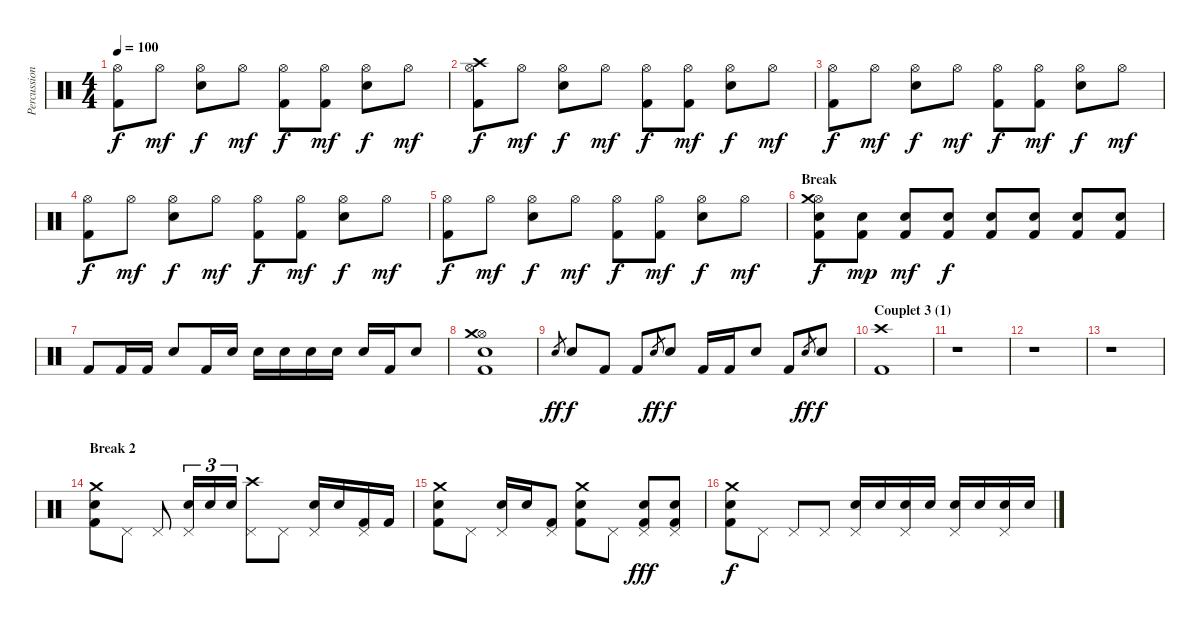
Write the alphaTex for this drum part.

\track ("Percussions" "Percussion") {instrument percussion}
\staff {score}
\articulation defaults
\ts (4 4)
\tempo 100
\clef neutral
\ks c
("Hi-Hat (open)" "Kick (hit) 2").8{dy f} "Hi-Hat (open)".8{dy mf} ("Hi-Hat (open)" "Electric Snare (hit)").8{dy f} "Hi-Hat (open)".8{dy mf} ("Hi-Hat (open)" "Kick (hit) 2").8{dy f} ("Hi-Hat (open)" "Kick (hit) 2").8{dy mf} ("Hi-Hat (open)" "Electric Snare (hit)").8{dy f} "Hi-Hat (open)".8{dy mf} |
("Hi-Hat (open)" "Crash high (hit)" "Kick (hit) 2").8{dy f} "Hi-Hat (open)".8{dy mf} ("Hi-Hat (open)" "Electric Snare (hit)").8{dy f} "Hi-Hat (open)".8{dy mf} ("Hi-Hat (open)" "Kick (hit) 2").8{dy f} ("Hi-Hat (open)" "Kick (hit) 2").8{dy mf} ("Hi-Hat (open)" "Electric Snare (hit)").8{dy f} "Hi-Hat (open)".8{dy mf} |
("Hi-Hat (open)" "Kick (hit) 2").8{dy f} "Hi-Hat (open)".8{dy mf} ("Hi-Hat (open)" "Electric Snare (hit)").8{dy f} "Hi-Hat (open)".8{dy mf} ("Hi-Hat (open)" "Kick (hit) 2").8{dy f} ("Hi-Hat (open)" "Kick (hit) 2").8{dy mf} ("Hi-Hat (open)" "Electric Snare (hit)").8{dy f} "Hi-Hat (open)".8{dy mf} |
("Hi-Hat (open)" "Kick (hit) 2").8{dy f} "Hi-Hat (open)".8{dy mf} ("Hi-Hat (open)" "Electric Snare (hit)").8{dy f} "Hi-Hat (open)".8{dy mf} ("Hi-Hat (open)" "Kick (hit) 2").8{dy f} ("Hi-Hat (open)" "Kick (hit) 2").8{dy mf} ("Hi-Hat (open)" "Electric Snare (hit)").8{dy f} "Hi-Hat (open)".8{dy mf} |
("Hi-Hat (open)" "Kick (hit) 2").8{dy f} "Hi-Hat (open)".8{dy mf} ("Hi-Hat (open)" "Electric Snare (hit)").8{dy f} "Hi-Hat (open)".8{dy mf} ("Hi-Hat (open)" "Kick (hit) 2").8{dy f} ("Hi-Hat (open)" "Kick (hit) 2").8{dy mf} ("Hi-Hat (open)" "Electric Snare (hit)").8{dy f} "Hi-Hat (open)".8{dy mf} |
\section ("" "Break")
("Hi-Hat (open)" "Crash medium (hit)" "Electric Snare (hit)" "Kick (hit) 2").8{dy f} ("Electric Snare (hit)" "Kick (hit) 2").8{dy mp} ("Electric Snare (hit)" "Kick (hit) 2").8{dy mf} ("Electric Snare (hit)" "Kick (hit) 2").8{dy f} ("Electric Snare (hit)" "Kick (hit) 2").8 ("Electric Snare (hit)" "Kick (hit) 2").8 ("Electric Snare (hit)" "Kick (hit) 2").8 ("Electric Snare (hit)" "Kick (hit) 2").8 |
"Kick (hit) 2".8 "Kick (hit) 2".16 "Kick (hit) 2".16 "Electric Snare (hit)".8 "Kick (hit) 2".16 "Electric Snare (hit)".16 "Electric Snare (hit)".16 "Electric Snare (hit)".16 "Electric Snare (hit)".16 "Electric Snare (hit)".16 "Electric Snare (hit)".16 "Kick (hit) 2".16 "Electric Snare (hit)".8 |
("Hi-Hat (open)" "Crash medium (hit)" "Electric Snare (hit)" "Kick (hit) 2").1 |
"Electric Snare (hit)".8{gr dy ff} "Electric Snare (hit)".8{dy f} "Kick (hit) 2".8 "Kick (hit) 2".8 "Electric Snare (hit)".8{gr dy ff} "Electric Snare (hit)".8{dy f} "Kick (hit) 2".16 "Kick (hit) 2".16 "Electric Snare (hit)".8 "Kick (hit) 2".8 "Electric Snare (hit)".8{gr dy ff} "Electric Snare (hit)".8{dy f} |
\section ("" "Couplet 3 (1)")
("Crash high (hit)" "Kick (hit) 2").1 |
r.1 |
r.1 |
r.1 |
\section ("" "Break 2")
("Crash medium (hit)" "Electric Snare (hit)" "Kick (hit) 2").8 "Pedal Hi-Hat (hit)".8 "Pedal Hi-Hat (hit)".8 ("Pedal Hi-Hat (hit)" "Electric Snare (hit)").16{tu (3 2)} "Electric Snare (hit)".16{tu (3 2)} "Electric Snare (hit)".16{tu (3 2)} ("Pedal Hi-Hat (hit)" "Crash high (hit)").8 "Pedal Hi-Hat (hit)".8 ("Pedal Hi-Hat (hit)" "Electric Snare (hit)").16 "Electric Snare (hit)".16 ("Pedal Hi-Hat (hit)" "Kick (hit) 2").16 "Kick (hit) 2".16 |
("Crash medium (hit)" "Electric Snare (hit)" "Kick (hit) 2").8 "Pedal Hi-Hat (hit)".8 ("Pedal Hi-Hat (hit)" "Electric Snare (hit)").16 "Electric Snare (hit)".16 ("Pedal Hi-Hat (hit)" "Kick (hit) 2").8 ("Crash medium (hit)" "Electric Snare (hit)" "Kick (hit) 2").8 "Pedal Hi-Hat (hit)".8 ("Pedal Hi-Hat (hit)" "Electric Snare (hit)" "Kick (hit) 2").8{dy fff} ("Pedal Hi-Hat (hit)" "Electric Snare (hit)" "Kick (hit) 2").8 |
("Crash medium (hit)" "Electric Snare (hit)" "Kick (hit) 2").8{dy f} "Pedal Hi-Hat (hit)".8 "Pedal Hi-Hat (hit)".8 "Pedal Hi-Hat (hit)".8 ("Pedal Hi-Hat (hit)" "Electric Snare (hit)").16 "Electric Snare (hit)".16 ("Pedal Hi-Hat (hit)" "Electric Snare (hit)").16 "Electric Snare (hit)".16 ("Pedal Hi-Hat (hit)" "Electric Snare (hit)").16 "Electric Snare (hit)".16 ("Pedal Hi-Hat (hit)" "Electric Snare (hit)").16 "Electric Snare (hit)".16
